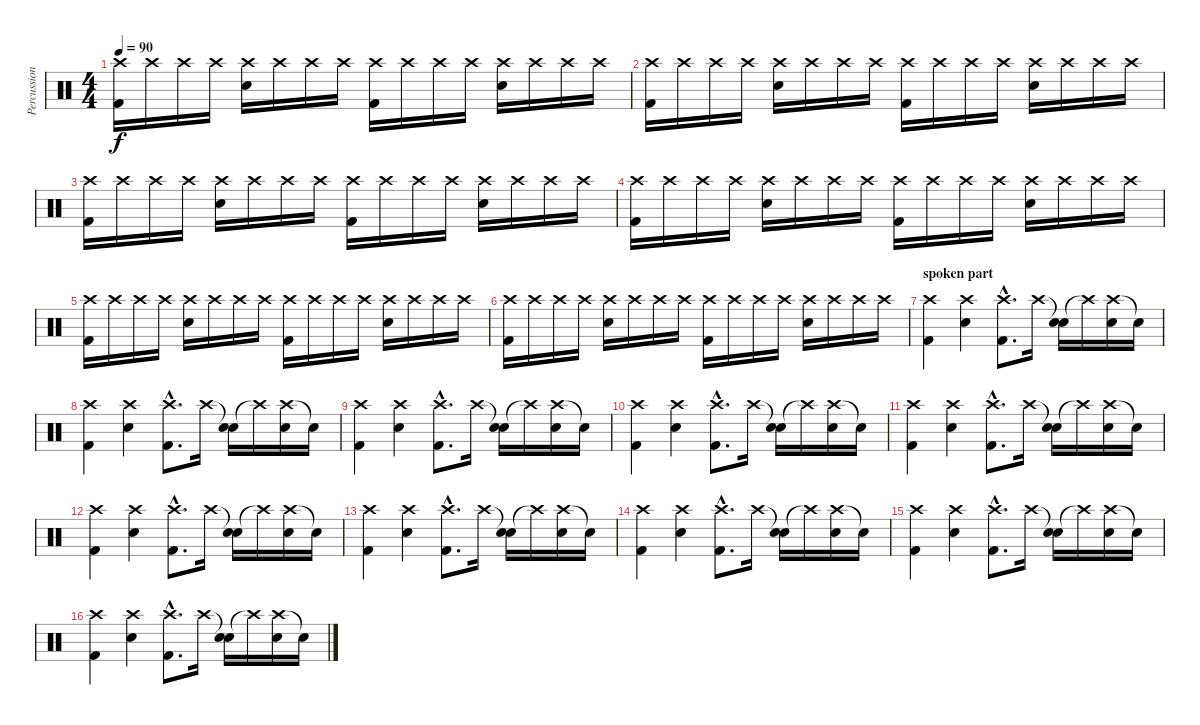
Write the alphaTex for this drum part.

\track ("Percussion" "Percussion") {instrument percussion}
\staff {score}
\articulation defaults
\ts (4 4)
\tempo 90
\clef neutral
\ks c
("Crash high (hit)" "Kick (hit) 2").16{dy f} "Crash high (hit)".16 "Crash high (hit)".16 "Crash high (hit)".16 ("Crash high (hit)" "Electric Snare (hit)").16 "Crash high (hit)".16 "Crash high (hit)".16 "Crash high (hit)".16 ("Crash high (hit)" "Kick (hit) 2").16 "Crash high (hit)".16 "Crash high (hit)".16 "Crash high (hit)".16 ("Crash high (hit)" "Electric Snare (hit)").16 "Crash high (hit)".16 "Crash high (hit)".16 "Crash high (hit)".16 |
("Crash high (hit)" "Kick (hit) 2").16 "Crash high (hit)".16 "Crash high (hit)".16 "Crash high (hit)".16 ("Crash high (hit)" "Electric Snare (hit)").16 "Crash high (hit)".16 "Crash high (hit)".16 "Crash high (hit)".16 ("Crash high (hit)" "Kick (hit) 2").16 "Crash high (hit)".16 "Crash high (hit)".16 "Crash high (hit)".16 ("Crash high (hit)" "Electric Snare (hit)").16 "Crash high (hit)".16 "Crash high (hit)".16 "Crash high (hit)".16 |
("Crash high (hit)" "Kick (hit) 2").16 "Crash high (hit)".16 "Crash high (hit)".16 "Crash high (hit)".16 ("Crash high (hit)" "Electric Snare (hit)").16 "Crash high (hit)".16 "Crash high (hit)".16 "Crash high (hit)".16 ("Crash high (hit)" "Kick (hit) 2").16 "Crash high (hit)".16 "Crash high (hit)".16 "Crash high (hit)".16 ("Crash high (hit)" "Electric Snare (hit)").16 "Crash high (hit)".16 "Crash high (hit)".16 "Crash high (hit)".16 |
("Crash high (hit)" "Kick (hit) 2").16 "Crash high (hit)".16 "Crash high (hit)".16 "Crash high (hit)".16 ("Crash high (hit)" "Electric Snare (hit)").16 "Crash high (hit)".16 "Crash high (hit)".16 "Crash high (hit)".16 ("Crash high (hit)" "Kick (hit) 2").16 "Crash high (hit)".16 "Crash high (hit)".16 "Crash high (hit)".16 ("Crash high (hit)" "Electric Snare (hit)").16 "Crash high (hit)".16 "Crash high (hit)".16 "Crash high (hit)".16 |
("Crash high (hit)" "Kick (hit) 2").16 "Crash high (hit)".16 "Crash high (hit)".16 "Crash high (hit)".16 ("Crash high (hit)" "Electric Snare (hit)").16 "Crash high (hit)".16 "Crash high (hit)".16 "Crash high (hit)".16 ("Crash high (hit)" "Kick (hit) 2").16 "Crash high (hit)".16 "Crash high (hit)".16 "Crash high (hit)".16 ("Crash high (hit)" "Electric Snare (hit)").16 "Crash high (hit)".16 "Crash high (hit)".16 "Crash high (hit)".16 |
("Crash high (hit)" "Kick (hit) 2").16 "Crash high (hit)".16 "Crash high (hit)".16 "Crash high (hit)".16 ("Crash high (hit)" "Electric Snare (hit)").16 "Crash high (hit)".16 "Crash high (hit)".16 "Crash high (hit)".16 ("Crash high (hit)" "Kick (hit) 2").16 "Crash high (hit)".16 "Crash high (hit)".16 "Crash high (hit)".16 ("Crash high (hit)" "Electric Snare (hit)").16 "Crash high (hit)".16 "Crash high (hit)".16 "Crash high (hit)".16 |
\section ("" "spoken part")
("Crash high (hit)" "Kick (hit) 2").4 ("Crash high (hit)" "Electric Snare (hit)").4 ("Crash high (hit)"{hac} "Kick (hit) 2"{hac}).8{d} "Crash high (hit)".16 ("Snare (hit)"{t} "Electric Snare (hit)").16 "Crash high (hit)"{t}.16 ("Crash high (hit)" "Electric Snare (hit)").16 "Snare (hit)"{t}.16 |
("Crash high (hit)" "Kick (hit) 2").4 ("Crash high (hit)" "Electric Snare (hit)").4 ("Crash high (hit)"{hac} "Kick (hit) 2"{hac}).8{d} "Crash high (hit)".16 ("Snare (hit)"{t} "Electric Snare (hit)").16 "Crash high (hit)"{t}.16 ("Crash high (hit)" "Electric Snare (hit)").16 "Snare (hit)"{t}.16 |
("Crash high (hit)" "Kick (hit) 2").4 ("Crash high (hit)" "Electric Snare (hit)").4 ("Crash high (hit)"{hac} "Kick (hit) 2"{hac}).8{d} "Crash high (hit)".16 ("Snare (hit)"{t} "Electric Snare (hit)").16 "Crash high (hit)"{t}.16 ("Crash high (hit)" "Electric Snare (hit)").16 "Snare (hit)"{t}.16 |
("Crash high (hit)" "Kick (hit) 2").4 ("Crash high (hit)" "Electric Snare (hit)").4 ("Crash high (hit)"{hac} "Kick (hit) 2"{hac}).8{d} "Crash high (hit)".16 ("Snare (hit)"{t} "Electric Snare (hit)").16 "Crash high (hit)"{t}.16 ("Crash high (hit)" "Electric Snare (hit)").16 "Snare (hit)"{t}.16 |
("Crash high (hit)" "Kick (hit) 2").4 ("Crash high (hit)" "Electric Snare (hit)").4 ("Crash high (hit)"{hac} "Kick (hit) 2"{hac}).8{d} "Crash high (hit)".16 ("Snare (hit)"{t} "Electric Snare (hit)").16 "Crash high (hit)"{t}.16 ("Crash high (hit)" "Electric Snare (hit)").16 "Snare (hit)"{t}.16 |
("Crash high (hit)" "Kick (hit) 2").4 ("Crash high (hit)" "Electric Snare (hit)").4 ("Crash high (hit)"{hac} "Kick (hit) 2"{hac}).8{d} "Crash high (hit)".16 ("Snare (hit)"{t} "Electric Snare (hit)").16 "Crash high (hit)"{t}.16 ("Crash high (hit)" "Electric Snare (hit)").16 "Snare (hit)"{t}.16 |
("Crash high (hit)" "Kick (hit) 2").4 ("Crash high (hit)" "Electric Snare (hit)").4 ("Crash high (hit)"{hac} "Kick (hit) 2"{hac}).8{d} "Crash high (hit)".16 ("Snare (hit)"{t} "Electric Snare (hit)").16 "Crash high (hit)"{t}.16 ("Crash high (hit)" "Electric Snare (hit)").16 "Snare (hit)"{t}.16 |
("Crash high (hit)" "Kick (hit) 2").4 ("Crash high (hit)" "Electric Snare (hit)").4 ("Crash high (hit)"{hac} "Kick (hit) 2"{hac}).8{d} "Crash high (hit)".16 ("Snare (hit)"{t} "Electric Snare (hit)").16 "Crash high (hit)"{t}.16 ("Crash high (hit)" "Electric Snare (hit)").16 "Snare (hit)"{t}.16 |
("Crash high (hit)" "Kick (hit) 2").4 ("Crash high (hit)" "Electric Snare (hit)").4 ("Crash high (hit)"{hac} "Kick (hit) 2"{hac}).8{d} "Crash high (hit)".16 ("Snare (hit)"{t} "Electric Snare (hit)").16 "Crash high (hit)"{t}.16 ("Crash high (hit)" "Electric Snare (hit)").16 "Snare (hit)"{t}.16 |
("Crash high (hit)" "Kick (hit) 2").4 ("Crash high (hit)" "Electric Snare (hit)").4 ("Crash high (hit)"{hac} "Kick (hit) 2"{hac}).8{d} "Crash high (hit)".16 ("Snare (hit)"{t} "Electric Snare (hit)").16 "Crash high (hit)"{t}.16 ("Crash high (hit)" "Electric Snare (hit)").16 "Snare (hit)"{t}.16
